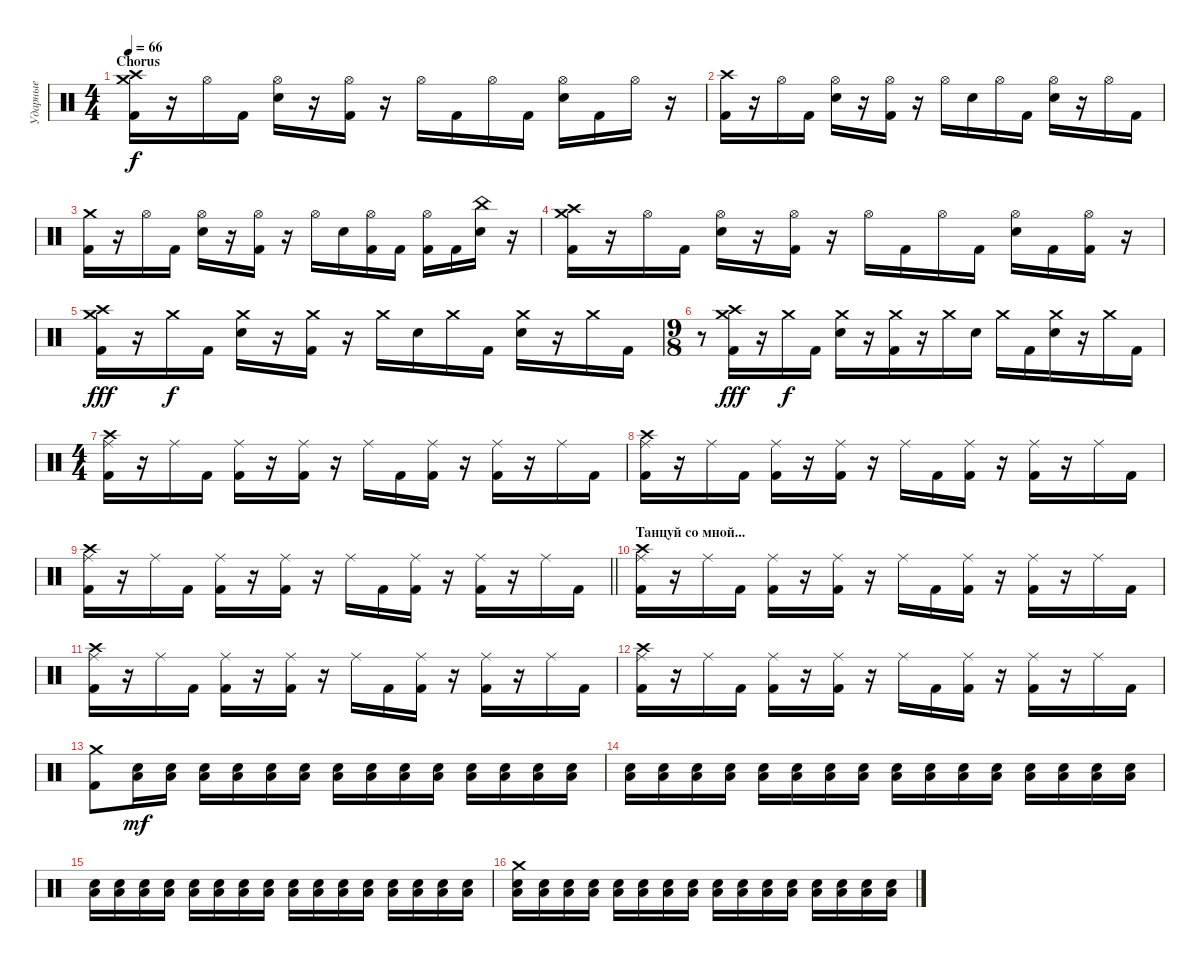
\track ("Ударные" "Ударные") {instrument percussion}
\staff {score}
\articulation defaults
\ts (4 4)
\section ("" "Chorus")
\tempo 66
\clef neutral
\ks c
("Crash medium (hit)" "Crash high (hit)" "Kick (hit) 2").16{dy f} r.16 "Hi-Hat (open)".16 "Kick (hit) 2".16 ("Hi-Hat (open)" "Electric Snare (hit)").16 r.16 ("Hi-Hat (open)" "Kick (hit) 2").16 r.16 "Hi-Hat (open)".16 "Kick (hit) 2".16 "Hi-Hat (open)".16 "Kick (hit) 2".16 ("Hi-Hat (open)" "Electric Snare (hit)").16 "Kick (hit) 2".16 "Hi-Hat (open)".16 r.16 |
("Crash high (hit)" "Kick (hit) 2").16 r.16 "Hi-Hat (open)".16 "Kick (hit) 2".16 ("Hi-Hat (open)" "Electric Snare (hit)").16 r.16 ("Hi-Hat (open)" "Kick (hit) 2").16 r.16 "Hi-Hat (open)".16 "Electric Snare (hit)".16 "Hi-Hat (open)".16 "Kick (hit) 2".16 ("Hi-Hat (open)" "Electric Snare (hit)").16 r.16 "Hi-Hat (open)".16 "Kick (hit) 2".16 |
("Crash medium (hit)" "Kick (hit) 2").16 r.16 "Hi-Hat (open)".16 "Kick (hit) 2".16 ("Hi-Hat (open)" "Electric Snare (hit)").16 r.16 ("Hi-Hat (open)" "Kick (hit) 2").16 r.16 "Hi-Hat (open)".16 "Electric Snare (hit)".16 ("Hi-Hat (open)" "Kick (hit) 2").16 "Kick (hit) 2".16 ("Hi-Hat (open)" "Kick (hit) 2").16 "Kick (hit) 2".16 ("China (hit)" "Electric Snare (hit)").16 r.16 |
("Crash medium (hit)" "Crash high (hit)" "Kick (hit) 2").16 r.16 "Hi-Hat (open)".16 "Kick (hit) 2".16 ("Hi-Hat (open)" "Electric Snare (hit)").16 r.16 ("Hi-Hat (open)" "Kick (hit) 2").16 r.16 "Hi-Hat (open)".16 "Kick (hit) 2".16 "Hi-Hat (open)".16 "Kick (hit) 2".16 ("Hi-Hat (open)" "Electric Snare (hit)").16 "Kick (hit) 2".16 ("Hi-Hat (open)" "Kick (hit) 2").16 r.16 |
("Crash medium (hit)" "Crash high (hit)" "Kick (hit) 2").16{dy fff} r.16 "Crash medium (hit)".16{dy f} "Kick (hit) 2".16 ("Crash medium (hit)" "Electric Snare (hit)").16 r.16 ("Crash medium (hit)" "Kick (hit) 2").16 r.16 "Crash medium (hit)".16 "Electric Snare (hit)".16 "Crash medium (hit)".16 "Kick (hit) 2".16 ("Crash medium (hit)" "Electric Snare (hit)").16 r.16 "Crash medium (hit)".16 "Kick (hit) 2".16 |
\ts (9 8)
r.8 ("Crash medium (hit)" "Crash high (hit)" "Kick (hit) 2").16{dy fff} r.16 "Crash medium (hit)".16{dy f} "Kick (hit) 2".16 ("Crash medium (hit)" "Electric Snare (hit)").16 r.16 ("Crash medium (hit)" "Kick (hit) 2").16 r.16 "Crash medium (hit)".16 "Electric Snare (hit)".16 "Crash medium (hit)".16 "Kick (hit) 2".16 ("Crash medium (hit)" "Electric Snare (hit)").16 r.16 "Crash medium (hit)".16 "Kick (hit) 2".16 |
\ts (4 4)
("Ride (middle)" "Crash high (hit)" "Kick (hit) 2").16 r.16 "Ride (middle)".16 "Kick (hit) 2".16 ("Ride (middle)" "Kick (hit) 2").16 r.16 ("Ride (middle)" "Kick (hit) 2").16 r.16 "Ride (middle)".16 "Kick (hit) 2".16 ("Ride (middle)" "Kick (hit) 2").16 r.16 ("Ride (middle)" "Kick (hit) 2").16 r.16 "Ride (middle)".16 "Kick (hit) 2".16 |
("Ride (middle)" "Crash high (hit)" "Kick (hit) 2").16 r.16 "Ride (middle)".16 "Kick (hit) 2".16 ("Ride (middle)" "Kick (hit) 2").16 r.16 ("Ride (middle)" "Kick (hit) 2").16 r.16 "Ride (middle)".16 "Kick (hit) 2".16 ("Ride (middle)" "Kick (hit) 2").16 r.16 ("Ride (middle)" "Kick (hit) 2").16 r.16 "Ride (middle)".16 "Kick (hit) 2".16 |
\barLineRight lightlight
("Ride (middle)" "Crash high (hit)" "Kick (hit) 2").16 r.16 "Ride (middle)".16 "Kick (hit) 2".16 ("Ride (middle)" "Kick (hit) 2").16 r.16 ("Ride (middle)" "Kick (hit) 2").16 r.16 "Ride (middle)".16 "Kick (hit) 2".16 ("Ride (middle)" "Kick (hit) 2").16 r.16 ("Ride (middle)" "Kick (hit) 2").16 r.16 "Ride (middle)".16 "Kick (hit) 2".16 |
\section ("" "Танцуй со мной...")
("Ride (middle)" "Crash high (hit)" "Kick (hit) 2").16 r.16 "Ride (middle)".16 "Kick (hit) 2".16 ("Ride (middle)" "Kick (hit) 2").16 r.16 ("Ride (middle)" "Kick (hit) 2").16 r.16 "Ride (middle)".16 "Kick (hit) 2".16 ("Ride (middle)" "Kick (hit) 2").16 r.16 ("Ride (middle)" "Kick (hit) 2").16 r.16 "Ride (middle)".16 "Kick (hit) 2".16 |
("Ride (middle)" "Crash high (hit)" "Kick (hit) 2").16 r.16 "Ride (middle)".16 "Kick (hit) 2".16 ("Ride (middle)" "Kick (hit) 2").16 r.16 ("Ride (middle)" "Kick (hit) 2").16 r.16 "Ride (middle)".16 "Kick (hit) 2".16 ("Ride (middle)" "Kick (hit) 2").16 r.16 ("Ride (middle)" "Kick (hit) 2").16 r.16 "Ride (middle)".16 "Kick (hit) 2".16 |
("Ride (middle)" "Crash high (hit)" "Kick (hit) 2").16 r.16 "Ride (middle)".16 "Kick (hit) 2".16 ("Ride (middle)" "Kick (hit) 2").16 r.16 ("Ride (middle)" "Kick (hit) 2").16 r.16 "Ride (middle)".16 "Kick (hit) 2".16 ("Ride (middle)" "Kick (hit) 2").16 r.16 ("Ride (middle)" "Kick (hit) 2").16 r.16 "Ride (middle)".16 "Kick (hit) 2".16 |
("Crash medium (hit)" "Kick (hit) 2").8 ("Electric Snare (hit)" "Low Tom (hit)").16{dy mf} ("Electric Snare (hit)" "Low Tom (hit)").16 ("Electric Snare (hit)" "Low Tom (hit)").16 ("Electric Snare (hit)" "Low Tom (hit)").16 ("Electric Snare (hit)" "Low Tom (hit)").16 ("Electric Snare (hit)" "Low Tom (hit)").16 ("Electric Snare (hit)" "Low Tom (hit)").16 ("Electric Snare (hit)" "Low Tom (hit)").16 ("Electric Snare (hit)" "Low Tom (hit)").16 ("Electric Snare (hit)" "Low Tom (hit)").16 ("Electric Snare (hit)" "Low Tom (hit)").16 ("Electric Snare (hit)" "Low Tom (hit)").16 ("Electric Snare (hit)" "Low Tom (hit)").16 ("Electric Snare (hit)" "Low Tom (hit)").16 |
("Electric Snare (hit)" "Low Tom (hit)").16 ("Electric Snare (hit)" "Low Tom (hit)").16 ("Electric Snare (hit)" "Low Tom (hit)").16 ("Electric Snare (hit)" "Low Tom (hit)").16 ("Electric Snare (hit)" "Low Tom (hit)").16 ("Electric Snare (hit)" "Low Tom (hit)").16 ("Electric Snare (hit)" "Low Tom (hit)").16 ("Electric Snare (hit)" "Low Tom (hit)").16 ("Electric Snare (hit)" "Low Tom (hit)").16 ("Electric Snare (hit)" "Low Tom (hit)").16 ("Electric Snare (hit)" "Low Tom (hit)").16 ("Electric Snare (hit)" "Low Tom (hit)").16 ("Electric Snare (hit)" "Low Tom (hit)").16 ("Electric Snare (hit)" "Low Tom (hit)").16 ("Electric Snare (hit)" "Low Tom (hit)").16 ("Electric Snare (hit)" "Low Tom (hit)").16 |
("Electric Snare (hit)" "Low Tom (hit)").16 ("Electric Snare (hit)" "Low Tom (hit)").16 ("Electric Snare (hit)" "Low Tom (hit)").16 ("Electric Snare (hit)" "Low Tom (hit)").16 ("Electric Snare (hit)" "Low Tom (hit)").16 ("Electric Snare (hit)" "Low Tom (hit)").16 ("Electric Snare (hit)" "Low Tom (hit)").16 ("Electric Snare (hit)" "Low Tom (hit)").16 ("Electric Snare (hit)" "Low Tom (hit)").16 ("Electric Snare (hit)" "Low Tom (hit)").16 ("Electric Snare (hit)" "Low Tom (hit)").16 ("Electric Snare (hit)" "Low Tom (hit)").16 ("Electric Snare (hit)" "Low Tom (hit)").16 ("Electric Snare (hit)" "Low Tom (hit)").16 ("Electric Snare (hit)" "Low Tom (hit)").16 ("Electric Snare (hit)" "Low Tom (hit)").16 |
("Crash medium (hit)" "Electric Snare (hit)" "Low Tom (hit)").16 ("Electric Snare (hit)" "Low Tom (hit)").16 ("Electric Snare (hit)" "Low Tom (hit)").16 ("Electric Snare (hit)" "Low Tom (hit)").16 ("Electric Snare (hit)" "Low Tom (hit)").16 ("Electric Snare (hit)" "Low Tom (hit)").16 ("Electric Snare (hit)" "Low Tom (hit)").16 ("Electric Snare (hit)" "Low Tom (hit)").16 ("Electric Snare (hit)" "Low Tom (hit)").16 ("Electric Snare (hit)" "Low Tom (hit)").16 ("Electric Snare (hit)" "Low Tom (hit)").16 ("Electric Snare (hit)" "Low Tom (hit)").16 ("Electric Snare (hit)" "Low Tom (hit)").16 ("Electric Snare (hit)" "Low Tom (hit)").16 ("Electric Snare (hit)" "Low Tom (hit)").16 ("Electric Snare (hit)" "Low Tom (hit)").16
